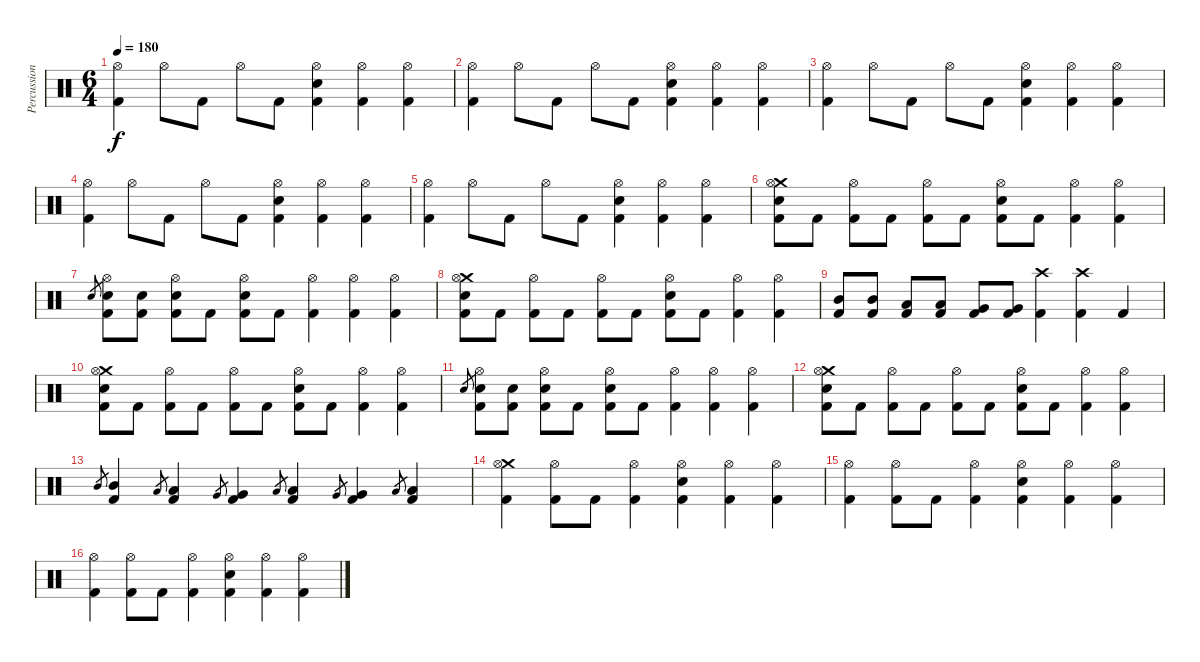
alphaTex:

\track ("Percussion" "Percussion") {instrument percussion}
\staff {score}
\articulation defaults
\ts (6 4)
\tempo 180
\clef neutral
\ks c
("Hi-Hat (open)" "Kick (hit) 2").4{dy f} "Hi-Hat (open)".8 "Kick (hit) 2".8 "Hi-Hat (open)".8 "Kick (hit) 2".8 ("Hi-Hat (open)" "Electric Snare (hit)" "Kick (hit) 2").4 ("Hi-Hat (open)" "Kick (hit) 2").4 ("Hi-Hat (open)" "Kick (hit) 2").4 |
("Hi-Hat (open)" "Kick (hit) 2").4 "Hi-Hat (open)".8 "Kick (hit) 2".8 "Hi-Hat (open)".8 "Kick (hit) 2".8 ("Hi-Hat (open)" "Electric Snare (hit)" "Kick (hit) 2").4 ("Hi-Hat (open)" "Kick (hit) 2").4 ("Hi-Hat (open)" "Kick (hit) 2").4 |
("Hi-Hat (open)" "Kick (hit) 2").4 "Hi-Hat (open)".8 "Kick (hit) 2".8 "Hi-Hat (open)".8 "Kick (hit) 2".8 ("Hi-Hat (open)" "Electric Snare (hit)" "Kick (hit) 2").4 ("Hi-Hat (open)" "Kick (hit) 2").4 ("Hi-Hat (open)" "Kick (hit) 2").4 |
("Hi-Hat (open)" "Kick (hit) 2").4 "Hi-Hat (open)".8 "Kick (hit) 2".8 "Hi-Hat (open)".8 "Kick (hit) 2".8 ("Hi-Hat (open)" "Electric Snare (hit)" "Kick (hit) 2").4 ("Hi-Hat (open)" "Kick (hit) 2").4 ("Hi-Hat (open)" "Kick (hit) 2").4 |
("Hi-Hat (open)" "Kick (hit) 2").4 "Hi-Hat (open)".8 "Kick (hit) 2".8 "Hi-Hat (open)".8 "Kick (hit) 2".8 ("Hi-Hat (open)" "Electric Snare (hit)" "Kick (hit) 2").4 ("Hi-Hat (open)" "Kick (hit) 2").4 ("Hi-Hat (open)" "Kick (hit) 2").4 |
("Crash medium (hit)" "Hi-Hat (open)" "Electric Snare (hit)" "Kick (hit) 2").8 "Kick (hit) 2".8 ("Hi-Hat (open)" "Kick (hit) 2").8 "Kick (hit) 2".8 ("Hi-Hat (open)" "Kick (hit) 2").8 "Kick (hit) 2".8 ("Hi-Hat (open)" "Electric Snare (hit)" "Kick (hit) 2").8 "Kick (hit) 2".8 ("Hi-Hat (open)" "Kick (hit) 2").4 ("Hi-Hat (open)" "Kick (hit) 2").4 |
"Electric Snare (hit)".8{gr} ("Hi-Hat (open)" "Electric Snare (hit)" "Kick (hit) 2").8 ("Electric Snare (hit)" "Kick (hit) 2").8 ("Hi-Hat (open)" "Electric Snare (hit)" "Kick (hit) 2").8 "Kick (hit) 2".8 ("Hi-Hat (open)" "Electric Snare (hit)" "Kick (hit) 2").8 "Kick (hit) 2".8 ("Hi-Hat (open)" "Kick (hit) 2").4 ("Hi-Hat (open)" "Kick (hit) 2").4 ("Hi-Hat (open)" "Kick (hit) 2").4 |
("Crash medium (hit)" "Hi-Hat (open)" "Electric Snare (hit)" "Kick (hit) 2").8 "Kick (hit) 2".8 ("Hi-Hat (open)" "Kick (hit) 2").8 "Kick (hit) 2".8 ("Hi-Hat (open)" "Kick (hit) 2").8 "Kick (hit) 2".8 ("Hi-Hat (open)" "Electric Snare (hit)" "Kick (hit) 2").8 "Kick (hit) 2".8 ("Hi-Hat (open)" "Kick (hit) 2").4 ("Hi-Hat (open)" "Kick (hit) 2").4 |
("Mid Tom (hit)" "Kick (hit) 2").8 ("Mid Tom (hit)" "Kick (hit) 2").8 ("Low Tom (hit)" "Kick (hit) 2").8 ("Low Tom (hit)" "Kick (hit) 2").8 ("Very Low Tom (hit)" "Kick (hit) 2").8 ("Very Low Tom (hit)" "Kick (hit) 2").8 ("Crash high (hit)" "Kick (hit) 2").4 ("Crash high (hit)" "Kick (hit) 2").4 "Kick (hit) 2".4 |
("Crash medium (hit)" "Hi-Hat (open)" "Electric Snare (hit)" "Kick (hit) 2").8 "Kick (hit) 2".8 ("Hi-Hat (open)" "Kick (hit) 2").8 "Kick (hit) 2".8 ("Hi-Hat (open)" "Kick (hit) 2").8 "Kick (hit) 2".8 ("Hi-Hat (open)" "Electric Snare (hit)" "Kick (hit) 2").8 "Kick (hit) 2".8 ("Hi-Hat (open)" "Kick (hit) 2").4 ("Hi-Hat (open)" "Kick (hit) 2").4 |
"Electric Snare (hit)".8{gr} ("Hi-Hat (open)" "Electric Snare (hit)" "Kick (hit) 2").8 ("Electric Snare (hit)" "Kick (hit) 2").8 ("Hi-Hat (open)" "Electric Snare (hit)" "Kick (hit) 2").8 "Kick (hit) 2".8 ("Hi-Hat (open)" "Electric Snare (hit)" "Kick (hit) 2").8 "Kick (hit) 2".8 ("Hi-Hat (open)" "Kick (hit) 2").4 ("Hi-Hat (open)" "Kick (hit) 2").4 ("Hi-Hat (open)" "Kick (hit) 2").4 |
("Crash medium (hit)" "Hi-Hat (open)" "Electric Snare (hit)" "Kick (hit) 2").8 "Kick (hit) 2".8 ("Hi-Hat (open)" "Kick (hit) 2").8 "Kick (hit) 2".8 ("Hi-Hat (open)" "Kick (hit) 2").8 "Kick (hit) 2".8 ("Hi-Hat (open)" "Electric Snare (hit)" "Kick (hit) 2").8 "Kick (hit) 2".8 ("Hi-Hat (open)" "Kick (hit) 2").4 ("Hi-Hat (open)" "Kick (hit) 2").4 |
"Mid Tom (hit)".8{gr} ("Mid Tom (hit)" "Kick (hit) 2").4 "Low Tom (hit)".8{gr} ("Low Tom (hit)" "Kick (hit) 2").4 "Very Low Tom (hit)".8{gr} ("Very Low Tom (hit)" "Kick (hit) 2").4 "Low Tom (hit)".8{gr} ("Low Tom (hit)" "Kick (hit) 2").4 "Very Low Tom (hit)".8{gr} ("Very Low Tom (hit)" "Kick (hit) 2").4 "Low Floor Tom (hit)".8{gr} ("Low Floor Tom (hit)" "Kick (hit) 2").4 |
("Crash medium (hit)" "Hi-Hat (open)" "Kick (hit) 2").4 ("Hi-Hat (open)" "Kick (hit) 2").8 "Kick (hit) 2".8 ("Hi-Hat (open)" "Kick (hit) 2").4 ("Hi-Hat (open)" "Electric Snare (hit)" "Kick (hit) 2").4 ("Hi-Hat (open)" "Kick (hit) 2").4 ("Hi-Hat (open)" "Kick (hit) 2").4 |
("Hi-Hat (open)" "Kick (hit) 2").4 ("Hi-Hat (open)" "Kick (hit) 2").8 "Kick (hit) 2".8 ("Hi-Hat (open)" "Kick (hit) 2").4 ("Hi-Hat (open)" "Electric Snare (hit)" "Kick (hit) 2").4 ("Hi-Hat (open)" "Kick (hit) 2").4 ("Hi-Hat (open)" "Kick (hit) 2").4 |
("Hi-Hat (open)" "Kick (hit) 2").4 ("Hi-Hat (open)" "Kick (hit) 2").8 "Kick (hit) 2".8 ("Hi-Hat (open)" "Kick (hit) 2").4 ("Hi-Hat (open)" "Electric Snare (hit)" "Kick (hit) 2").4 ("Hi-Hat (open)" "Kick (hit) 2").4 ("Hi-Hat (open)" "Kick (hit) 2").4
